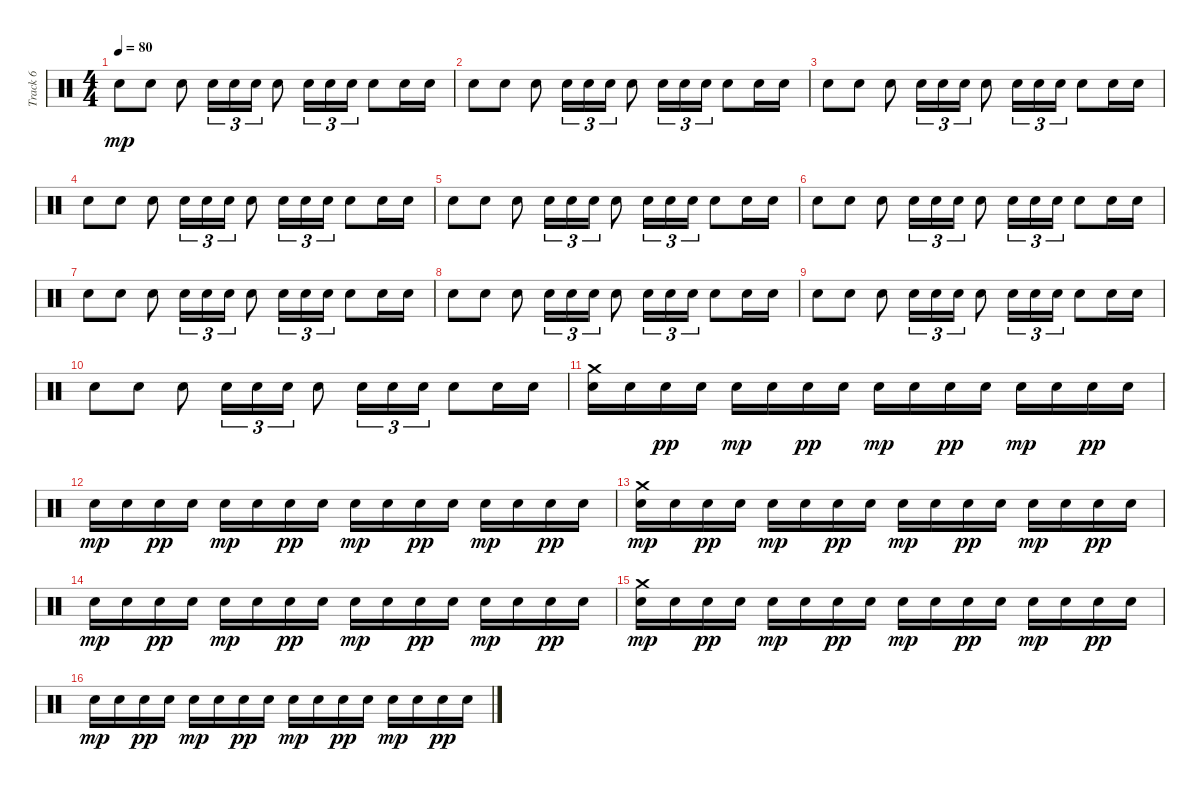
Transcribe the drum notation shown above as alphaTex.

\track ("Track 6" "Track 6") {instrument percussion}
\staff {score}
\articulation defaults
\ts (4 4)
\tempo 80
\clef neutral
\ks c "Electric Snare (hit)".8{dy mp} "Electric Snare (hit)".8 "Electric Snare (hit)".8 "Electric Snare (hit)".16{tu (3 2)} "Electric Snare (hit)".16{tu (3 2)} "Electric Snare (hit)".16{tu (3 2)} "Electric Snare (hit)".8 "Electric Snare (hit)".16{tu (3 2)} "Electric Snare (hit)".16{tu (3 2)} "Electric Snare (hit)".16{tu (3 2)} "Electric Snare (hit)".8 "Electric Snare (hit)".16 "Electric Snare (hit)".16
|
"Electric Snare (hit)".8 "Electric Snare (hit)".8 "Electric Snare (hit)".8 "Electric Snare (hit)".16{tu (3 2)} "Electric Snare (hit)".16{tu (3 2)} "Electric Snare (hit)".16{tu (3 2)} "Electric Snare (hit)".8 "Electric Snare (hit)".16{tu (3 2)} "Electric Snare (hit)".16{tu (3 2)} "Electric Snare (hit)".16{tu (3 2)} "Electric Snare (hit)".8 "Electric Snare (hit)".16 "Electric Snare (hit)".16 |
"Electric Snare (hit)".8 "Electric Snare (hit)".8 "Electric Snare (hit)".8 "Electric Snare (hit)".16{tu (3 2)} "Electric Snare (hit)".16{tu (3 2)} "Electric Snare (hit)".16{tu (3 2)} "Electric Snare (hit)".8 "Electric Snare (hit)".16{tu (3 2)} "Electric Snare (hit)".16{tu (3 2)} "Electric Snare (hit)".16{tu (3 2)} "Electric Snare (hit)".8 "Electric Snare (hit)".16 "Electric Snare (hit)".16 |
"Electric Snare (hit)".8 "Electric Snare (hit)".8 "Electric Snare (hit)".8 "Electric Snare (hit)".16{tu (3 2)} "Electric Snare (hit)".16{tu (3 2)} "Electric Snare (hit)".16{tu (3 2)} "Electric Snare (hit)".8 "Electric Snare (hit)".16{tu (3 2)} "Electric Snare (hit)".16{tu (3 2)} "Electric Snare (hit)".16{tu (3 2)} "Electric Snare (hit)".8 "Electric Snare (hit)".16 "Electric Snare (hit)".16 |
"Electric Snare (hit)".8 "Electric Snare (hit)".8 "Electric Snare (hit)".8 "Electric Snare (hit)".16{tu (3 2)} "Electric Snare (hit)".16{tu (3 2)} "Electric Snare (hit)".16{tu (3 2)} "Electric Snare (hit)".8 "Electric Snare (hit)".16{tu (3 2)} "Electric Snare (hit)".16{tu (3 2)} "Electric Snare (hit)".16{tu (3 2)} "Electric Snare (hit)".8 "Electric Snare (hit)".16 "Electric Snare (hit)".16 |
"Electric Snare (hit)".8 "Electric Snare (hit)".8 "Electric Snare (hit)".8 "Electric Snare (hit)".16{tu (3 2)} "Electric Snare (hit)".16{tu (3 2)} "Electric Snare (hit)".16{tu (3 2)} "Electric Snare (hit)".8 "Electric Snare (hit)".16{tu (3 2)} "Electric Snare (hit)".16{tu (3 2)} "Electric Snare (hit)".16{tu (3 2)} "Electric Snare (hit)".8 "Electric Snare (hit)".16 "Electric Snare (hit)".16 |
"Electric Snare (hit)".8 "Electric Snare (hit)".8 "Electric Snare (hit)".8 "Electric Snare (hit)".16{tu (3 2)} "Electric Snare (hit)".16{tu (3 2)} "Electric Snare (hit)".16{tu (3 2)} "Electric Snare (hit)".8 "Electric Snare (hit)".16{tu (3 2)} "Electric Snare (hit)".16{tu (3 2)} "Electric Snare (hit)".16{tu (3 2)} "Electric Snare (hit)".8 "Electric Snare (hit)".16 "Electric Snare (hit)".16 |
"Electric Snare (hit)".8 "Electric Snare (hit)".8 "Electric Snare (hit)".8 "Electric Snare (hit)".16{tu (3 2)} "Electric Snare (hit)".16{tu (3 2)} "Electric Snare (hit)".16{tu (3 2)} "Electric Snare (hit)".8 "Electric Snare (hit)".16{tu (3 2)} "Electric Snare (hit)".16{tu (3 2)} "Electric Snare (hit)".16{tu (3 2)} "Electric Snare (hit)".8 "Electric Snare (hit)".16 "Electric Snare (hit)".16 |
"Electric Snare (hit)".8 "Electric Snare (hit)".8 "Electric Snare (hit)".8 "Electric Snare (hit)".16{tu (3 2)} "Electric Snare (hit)".16{tu (3 2)} "Electric Snare (hit)".16{tu (3 2)} "Electric Snare (hit)".8 "Electric Snare (hit)".16{tu (3 2)} "Electric Snare (hit)".16{tu (3 2)} "Electric Snare (hit)".16{tu (3 2)} "Electric Snare (hit)".8 "Electric Snare (hit)".16 "Electric Snare (hit)".16 |
"Electric Snare (hit)".8 "Electric Snare (hit)".8 "Electric Snare (hit)".8 "Electric Snare (hit)".16{tu (3 2)} "Electric Snare (hit)".16{tu (3 2)} "Electric Snare (hit)".16{tu (3 2)} "Electric Snare (hit)".8 "Electric Snare (hit)".16{tu (3 2)} "Electric Snare (hit)".16{tu (3 2)} "Electric Snare (hit)".16{tu (3 2)} "Electric Snare (hit)".8 "Electric Snare (hit)".16 "Electric Snare (hit)".16 |
("Electric Snare (hit)" "Crash medium (hit)").16 "Electric Snare (hit)".16 "Electric Snare (hit)".16{dy pp} "Electric Snare (hit)".16 "Electric Snare (hit)".16{dy mp} "Electric Snare (hit)".16 "Electric Snare (hit)".16{dy pp} "Electric Snare (hit)".16 "Electric Snare (hit)".16{dy mp} "Electric Snare (hit)".16 "Electric Snare (hit)".16{dy pp} "Electric Snare (hit)".16 "Electric Snare (hit)".16{dy mp} "Electric Snare (hit)".16 "Electric Snare (hit)".16{dy pp} "Electric Snare (hit)".16 |
"Electric Snare (hit)".16{dy mp} "Electric Snare (hit)".16 "Electric Snare (hit)".16{dy pp} "Electric Snare (hit)".16 "Electric Snare (hit)".16{dy mp} "Electric Snare (hit)".16 "Electric Snare (hit)".16{dy pp} "Electric Snare (hit)".16 "Electric Snare (hit)".16{dy mp} "Electric Snare (hit)".16 "Electric Snare (hit)".16{dy pp} "Electric Snare (hit)".16 "Electric Snare (hit)".16{dy mp} "Electric Snare (hit)".16 "Electric Snare (hit)".16{dy pp} "Electric Snare (hit)".16 |
("Electric Snare (hit)" "Crash medium (hit)").16{dy mp} "Electric Snare (hit)".16 "Electric Snare (hit)".16{dy pp} "Electric Snare (hit)".16 "Electric Snare (hit)".16{dy mp} "Electric Snare (hit)".16 "Electric Snare (hit)".16{dy pp} "Electric Snare (hit)".16 "Electric Snare (hit)".16{dy mp} "Electric Snare (hit)".16 "Electric Snare (hit)".16{dy pp} "Electric Snare (hit)".16 "Electric Snare (hit)".16{dy mp} "Electric Snare (hit)".16 "Electric Snare (hit)".16{dy pp} "Electric Snare (hit)".16 |
"Electric Snare (hit)".16{dy mp} "Electric Snare (hit)".16 "Electric Snare (hit)".16{dy pp} "Electric Snare (hit)".16 "Electric Snare (hit)".16{dy mp} "Electric Snare (hit)".16 "Electric Snare (hit)".16{dy pp} "Electric Snare (hit)".16 "Electric Snare (hit)".16{dy mp} "Electric Snare (hit)".16 "Electric Snare (hit)".16{dy pp} "Electric Snare (hit)".16 "Electric Snare (hit)".16{dy mp} "Electric Snare (hit)".16 "Electric Snare (hit)".16{dy pp} "Electric Snare (hit)".16 |
("Electric Snare (hit)" "Crash medium (hit)").16{dy mp} "Electric Snare (hit)".16 "Electric Snare (hit)".16{dy pp} "Electric Snare (hit)".16 "Electric Snare (hit)".16{dy mp} "Electric Snare (hit)".16 "Electric Snare (hit)".16{dy pp} "Electric Snare (hit)".16 "Electric Snare (hit)".16{dy mp} "Electric Snare (hit)".16 "Electric Snare (hit)".16{dy pp} "Electric Snare (hit)".16 "Electric Snare (hit)".16{dy mp} "Electric Snare (hit)".16 "Electric Snare (hit)".16{dy pp} "Electric Snare (hit)".16 |
"Electric Snare (hit)".16{dy mp} "Electric Snare (hit)".16 "Electric Snare (hit)".16{dy pp} "Electric Snare (hit)".16 "Electric Snare (hit)".16{dy mp} "Electric Snare (hit)".16 "Electric Snare (hit)".16{dy pp} "Electric Snare (hit)".16 "Electric Snare (hit)".16{dy mp} "Electric Snare (hit)".16 "Electric Snare (hit)".16{dy pp} "Electric Snare (hit)".16 "Electric Snare (hit)".16{dy mp} "Electric Snare (hit)".16 "Electric Snare (hit)".16{dy pp} "Electric Snare (hit)".16
